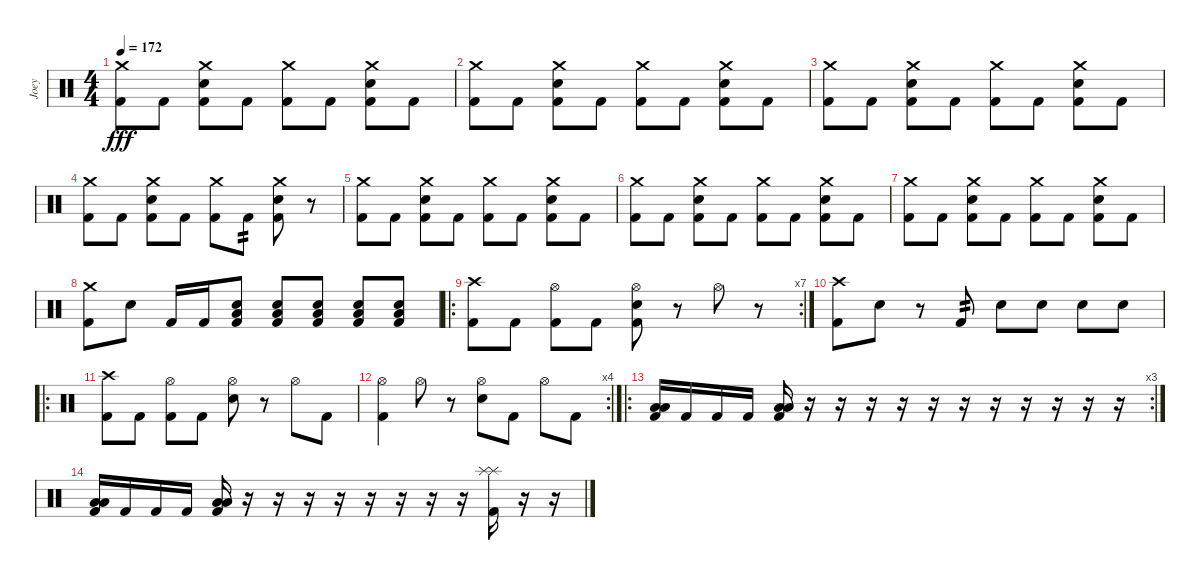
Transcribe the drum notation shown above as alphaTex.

\track ("Joey" "Joey") {instrument percussion}
\staff {score}
\articulation defaults
\ts (4 4)
\tempo 172
\clef neutral
\ks c
("Crash medium (hit)" "Kick (hit) 2").8{dy fff} "Kick (hit) 2".8 ("Crash medium (hit)" "Snare (hit) 2" "Kick (hit) 2").8 "Kick (hit) 2".8 ("Crash medium (hit)" "Kick (hit) 2").8 "Kick (hit) 2".8 ("Crash medium (hit)" "Snare (hit) 2" "Kick (hit) 2").8 "Kick (hit) 2".8 |
("Crash medium (hit)" "Kick (hit) 2").8 "Kick (hit) 2".8 ("Crash medium (hit)" "Snare (hit) 2" "Kick (hit) 2").8 "Kick (hit) 2".8 ("Crash medium (hit)" "Kick (hit) 2").8 "Kick (hit) 2".8 ("Crash medium (hit)" "Snare (hit) 2" "Kick (hit) 2").8 "Kick (hit) 2".8 |
("Crash medium (hit)" "Kick (hit) 2").8 "Kick (hit) 2".8 ("Crash medium (hit)" "Snare (hit) 2" "Kick (hit) 2").8 "Kick (hit) 2".8 ("Crash medium (hit)" "Kick (hit) 2").8 "Kick (hit) 2".8 ("Crash medium (hit)" "Snare (hit) 2" "Kick (hit) 2").8 "Kick (hit) 2".8 |
("Crash medium (hit)" "Kick (hit) 2").8 "Kick (hit) 2".8 ("Crash medium (hit)" "Snare (hit) 2" "Kick (hit) 2").8 "Kick (hit) 2".8 ("Crash medium (hit)" "Kick (hit) 2").8 "Kick (hit) 2".8{tp 2} ("Crash medium (hit)" "Snare (hit) 2" "Kick (hit) 2").8 r.8 |
("Crash medium (hit)" "Kick (hit) 2").8 "Kick (hit) 2".8 ("Crash medium (hit)" "Snare (hit) 2" "Kick (hit) 2").8 "Kick (hit) 2".8 ("Crash medium (hit)" "Kick (hit) 2").8 "Kick (hit) 2".8 ("Crash medium (hit)" "Snare (hit) 2" "Kick (hit) 2").8 "Kick (hit) 2".8 |
("Crash medium (hit)" "Kick (hit) 2").8 "Kick (hit) 2".8 ("Crash medium (hit)" "Snare (hit) 2" "Kick (hit) 2").8 "Kick (hit) 2".8 ("Crash medium (hit)" "Kick (hit) 2").8 "Kick (hit) 2".8 ("Crash medium (hit)" "Snare (hit) 2" "Kick (hit) 2").8 "Kick (hit) 2".8 |
("Crash medium (hit)" "Kick (hit) 2").8 "Kick (hit) 2".8 ("Crash medium (hit)" "Snare (hit) 2" "Kick (hit) 2").8 "Kick (hit) 2".8 ("Crash medium (hit)" "Kick (hit) 2").8 "Kick (hit) 2".8 ("Crash medium (hit)" "Snare (hit) 2" "Kick (hit) 2").8 "Kick (hit) 2".8 |
("Crash medium (hit)" "Kick (hit) 2").8 "Snare (hit) 2".8 "Kick (hit) 2".16 "Kick (hit) 2".16 ("Snare (hit) 2" "Low Floor Tom (hit)" "Kick (hit) 2").8 ("Snare (hit) 2" "Low Floor Tom (hit)" "Kick (hit) 2").8 ("Snare (hit) 2" "Low Floor Tom (hit)" "Kick (hit) 2").8 ("Snare (hit) 2" "Low Floor Tom (hit)" "Kick (hit) 2").8 ("Snare (hit) 2" "Low Floor Tom (hit)" "Kick (hit) 2").8 |
\ro
\rc 7
("Crash high (hit)" "Kick (hit) 2").8 "Kick (hit) 2".8 ("Hi-Hat (open)" "Kick (hit) 2").8 "Kick (hit) 2".8 ("Hi-Hat (open)" "Snare (hit) 2" "Kick (hit) 2").8 r.8 "Hi-Hat (open)".8 r.8 |
("Crash high (hit)" "Kick (hit) 2").8 "Snare (hit) 2".8 r.8 "Kick (hit) 2".8{tp 2} "Snare (hit) 2".8 "Snare (hit) 2".8 "Snare (hit) 2".8 "Snare (hit) 2".8 |
\ro
("Crash high (hit)" "Kick (hit) 2").8 "Kick (hit) 2".8 ("Hi-Hat (open)" "Kick (hit) 2").8 "Kick (hit) 2".8 ("Hi-Hat (open)" "Snare (hit) 2").8 r.8 "Hi-Hat (open)".8 "Kick (hit) 2".8 |
\rc 4
("Hi-Hat (open)" "Kick (hit) 2").4 "Hi-Hat (open)".8 r.8 ("Hi-Hat (open)" "Snare (hit) 2").8 "Kick (hit) 2".8 "Hi-Hat (open)".8 "Kick (hit) 2".8 |
\ro
\rc 3
("Low Tom (hit)" "Low Floor Tom (hit)" "Kick (hit) 2").16 "Kick (hit) 2".16 "Kick (hit) 2".16 "Kick (hit) 2".16 ("Low Tom (hit)" "Low Floor Tom (hit)" "Kick (hit) 2").16 r.16 r.16 r.16 r.16 r.16 r.16 r.16 r.16 r.16 r.16 r.16 |
("Low Tom (hit)" "Low Floor Tom (hit)" "Kick (hit) 2").16 "Kick (hit) 2".16 "Kick (hit) 2".16 "Kick (hit) 2".16 ("Low Tom (hit)" "Low Floor Tom (hit)" "Kick (hit) 2").16 r.16 r.16 r.16 r.16 r.16 r.16 r.16 r.16 ("Splash (hit)" "Splash (hit)" "Kick (hit) 2").16 r.16 r.16
